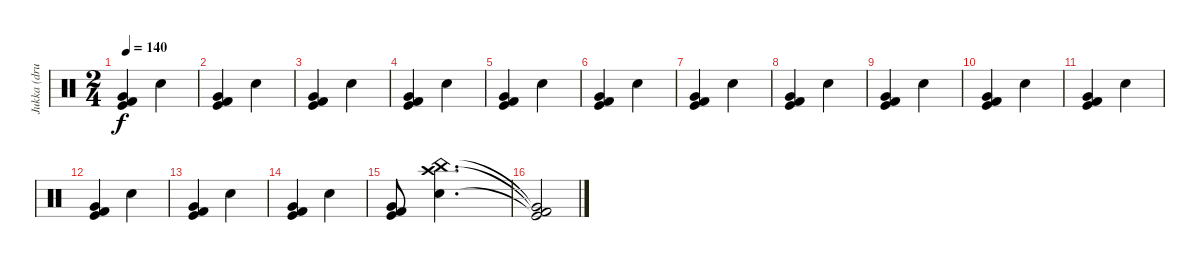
\track ("Jukka (drums)" "Jukka (dru") {instrument percussion}
\staff {score}
\articulation defaults
\ts (2 4)
\tempo 140
\clef neutral
\ks c
("Kick (hit)" "Kick (hit) 2" "Very Low Tom (hit)").4{dy f} "Electric Snare (hit)".4 |
("Kick (hit)" "Kick (hit) 2" "Very Low Tom (hit)").4 "Electric Snare (hit)".4 |
("Kick (hit)" "Kick (hit) 2" "Very Low Tom (hit)").4 "Electric Snare (hit)".4 |
("Kick (hit)" "Kick (hit) 2" "Very Low Tom (hit)").4 "Electric Snare (hit)".4 |
("Kick (hit)" "Kick (hit) 2" "Very Low Tom (hit)").4 "Electric Snare (hit)".4 |
("Kick (hit)" "Kick (hit) 2" "Very Low Tom (hit)").4 "Electric Snare (hit)".4 |
("Kick (hit)" "Kick (hit) 2" "Very Low Tom (hit)").4 "Electric Snare (hit)".4 |
("Kick (hit)" "Kick (hit) 2" "Very Low Tom (hit)").4 "Electric Snare (hit)".4 |
("Kick (hit)" "Kick (hit) 2" "Very Low Tom (hit)").4 "Electric Snare (hit)".4 |
("Kick (hit)" "Kick (hit) 2" "Very Low Tom (hit)").4 "Electric Snare (hit)".4 |
("Kick (hit)" "Kick (hit) 2" "Very Low Tom (hit)").4 "Electric Snare (hit)".4 |
("Kick (hit)" "Kick (hit) 2" "Very Low Tom (hit)").4 "Electric Snare (hit)".4 |
("Kick (hit)" "Kick (hit) 2" "Very Low Tom (hit)").4 "Electric Snare (hit)".4 |
("Kick (hit)" "Kick (hit) 2" "Very Low Tom (hit)").4 "Electric Snare (hit)".4 |
("Kick (hit)" "Kick (hit) 2" "Very Low Tom (hit)").8 ("Electric Snare (hit)" "Crash high (hit)" "China (hit)").4{d} |
("Kick (hit)"{t} "Kick (hit) 2"{t} "Very Low Tom (hit)"{t}).2
